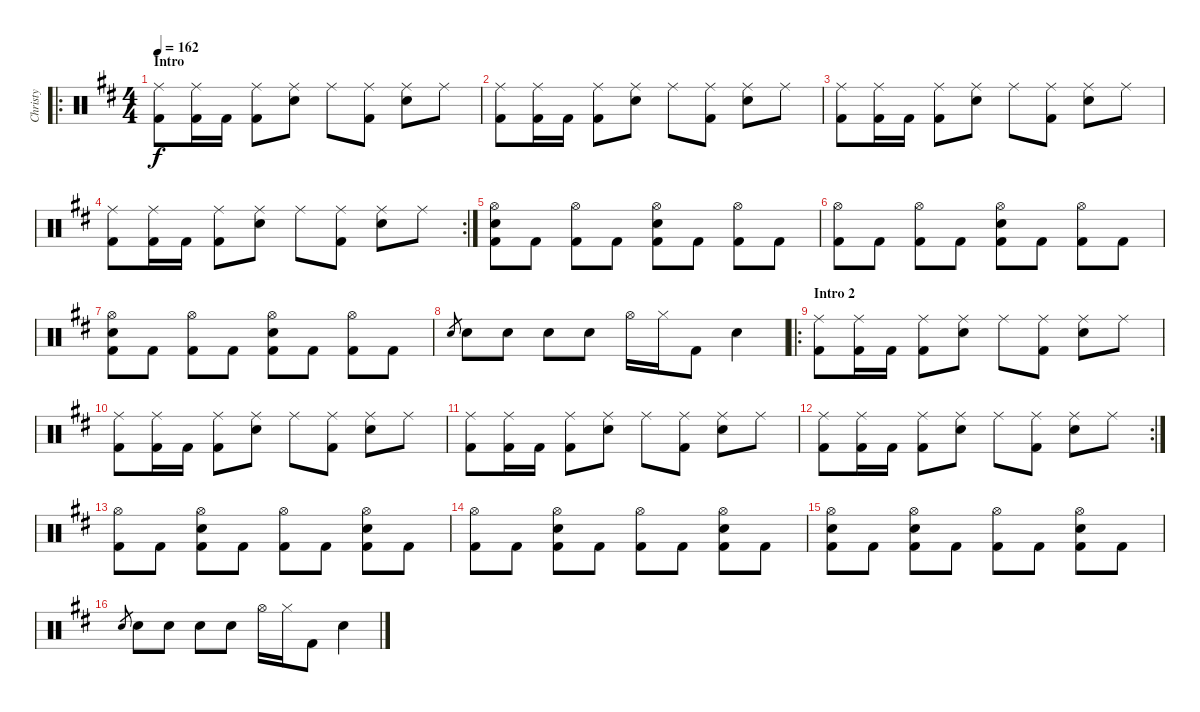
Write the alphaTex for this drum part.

\track ("Christy" "Christy") {instrument percussion}
\staff {score}
\articulation defaults
\ro
\ts (4 4)
\section ("" "Intro")
\tempo 162
\clef neutral
\ks d
("Ride (middle)" "Kick (hit) 2").8{dy f} ("Ride (middle)" "Kick (hit) 2").16 "Kick (hit) 2".16 ("Ride (middle)" "Kick (hit) 2").8 ("Ride (middle)" "Snare (hit) 2").8 "Ride (middle)".8 ("Ride (middle)" "Kick (hit) 2").8 ("Ride (middle)" "Snare (hit) 2").8 "Ride (middle)".8 |
("Ride (middle)" "Kick (hit) 2").8 ("Ride (middle)" "Kick (hit) 2").16 "Kick (hit) 2".16 ("Ride (middle)" "Kick (hit) 2").8 ("Ride (middle)" "Snare (hit) 2").8 "Ride (middle)".8 ("Ride (middle)" "Kick (hit) 2").8 ("Ride (middle)" "Snare (hit) 2").8 "Ride (middle)".8 |
("Ride (middle)" "Kick (hit) 2").8 ("Ride (middle)" "Kick (hit) 2").16 "Kick (hit) 2".16 ("Ride (middle)" "Kick (hit) 2").8 ("Ride (middle)" "Snare (hit) 2").8 "Ride (middle)".8 ("Ride (middle)" "Kick (hit) 2").8 ("Ride (middle)" "Snare (hit) 2").8 "Ride (middle)".8 |
\rc 2
("Ride (middle)" "Kick (hit) 2").8 ("Ride (middle)" "Kick (hit) 2").16 "Kick (hit) 2".16 ("Ride (middle)" "Kick (hit) 2").8 ("Ride (middle)" "Snare (hit) 2").8 "Ride (middle)".8 ("Ride (middle)" "Kick (hit) 2").8 ("Ride (middle)" "Snare (hit) 2").8 "Ride (middle)".8 |
\section ("" "")
("Hi-Hat (open)" "Snare (hit) 2" "Kick (hit) 2").8 "Kick (hit) 2".8 ("Hi-Hat (open)" "Kick (hit) 2").8 "Kick (hit) 2".8 ("Hi-Hat (open)" "Snare (hit) 2" "Kick (hit) 2").8 "Kick (hit) 2".8 ("Hi-Hat (open)" "Kick (hit) 2").8 "Kick (hit) 2".8 |
("Hi-Hat (open)" "Kick (hit) 2").8 "Kick (hit) 2".8 ("Hi-Hat (open)" "Kick (hit) 2").8 "Kick (hit) 2".8 ("Hi-Hat (open)" "Snare (hit) 2" "Kick (hit) 2").8 "Kick (hit) 2".8 ("Hi-Hat (open)" "Kick (hit) 2").8 "Kick (hit) 2".8 |
("Hi-Hat (open)" "Snare (hit) 2" "Kick (hit) 2").8 "Kick (hit) 2".8 ("Hi-Hat (open)" "Kick (hit) 2").8 "Kick (hit) 2".8 ("Hi-Hat (open)" "Snare (hit) 2" "Kick (hit) 2").8 "Kick (hit) 2".8 ("Hi-Hat (open)" "Kick (hit) 2").8 "Kick (hit) 2".8 |
"Snare (hit) 2".8{gr} "Snare (hit) 2".8 "Snare (hit) 2".8 "Snare (hit) 2".8 "Snare (hit) 2".8 "Hi-Hat (open)".16 "Hi-Hat (closed)".16 "Kick (hit) 2".8 "Snare (hit) 2".4 |
\ro
\section ("" "Intro 2")
("Ride (middle)" "Kick (hit) 2").8 ("Ride (middle)" "Kick (hit) 2").16 "Kick (hit) 2".16 ("Ride (middle)" "Kick (hit) 2").8 ("Ride (middle)" "Snare (hit) 2").8 "Ride (middle)".8 ("Ride (middle)" "Kick (hit) 2").8 ("Ride (middle)" "Snare (hit) 2").8 "Ride (middle)".8 |
("Ride (middle)" "Kick (hit) 2").8 ("Ride (middle)" "Kick (hit) 2").16 "Kick (hit) 2".16 ("Ride (middle)" "Kick (hit) 2").8 ("Ride (middle)" "Snare (hit) 2").8 "Ride (middle)".8 ("Ride (middle)" "Kick (hit) 2").8 ("Ride (middle)" "Snare (hit) 2").8 "Ride (middle)".8 |
("Ride (middle)" "Kick (hit) 2").8 ("Ride (middle)" "Kick (hit) 2").16 "Kick (hit) 2".16 ("Ride (middle)" "Kick (hit) 2").8 ("Ride (middle)" "Snare (hit) 2").8 "Ride (middle)".8 ("Ride (middle)" "Kick (hit) 2").8 ("Ride (middle)" "Snare (hit) 2").8 "Ride (middle)".8 |
\rc 2
("Ride (middle)" "Kick (hit) 2").8 ("Ride (middle)" "Kick (hit) 2").16 "Kick (hit) 2".16 ("Ride (middle)" "Kick (hit) 2").8 ("Ride (middle)" "Snare (hit) 2").8 "Ride (middle)".8 ("Ride (middle)" "Kick (hit) 2").8 ("Ride (middle)" "Snare (hit) 2").8 "Ride (middle)".8 |
\section ("" "")
("Hi-Hat (open)" "Kick (hit) 2").8 "Kick (hit) 2".8 ("Hi-Hat (open)" "Snare (hit) 2" "Kick (hit) 2").8 "Kick (hit) 2".8 ("Hi-Hat (open)" "Kick (hit) 2").8 "Kick (hit) 2".8 ("Hi-Hat (open)" "Snare (hit) 2" "Kick (hit) 2").8 "Kick (hit) 2".8 |
("Hi-Hat (open)" "Kick (hit) 2").8 "Kick (hit) 2".8 ("Hi-Hat (open)" "Snare (hit) 2" "Kick (hit) 2").8 "Kick (hit) 2".8 ("Hi-Hat (open)" "Kick (hit) 2").8 "Kick (hit) 2".8 ("Hi-Hat (open)" "Snare (hit) 2" "Kick (hit) 2").8 "Kick (hit) 2".8 |
("Hi-Hat (open)" "Snare (hit) 2" "Kick (hit) 2").8 "Kick (hit) 2".8 ("Hi-Hat (open)" "Snare (hit) 2" "Kick (hit) 2").8 "Kick (hit) 2".8 ("Hi-Hat (open)" "Kick (hit) 2").8 "Kick (hit) 2".8 ("Hi-Hat (open)" "Snare (hit) 2" "Kick (hit) 2").8 "Kick (hit) 2".8 |
"Snare (hit) 2".8{gr} "Snare (hit) 2".8 "Snare (hit) 2".8 "Snare (hit) 2".8 "Snare (hit) 2".8 "Hi-Hat (open)".16 "Hi-Hat (closed)".16 "Kick (hit) 2".8 "Snare (hit) 2".4
